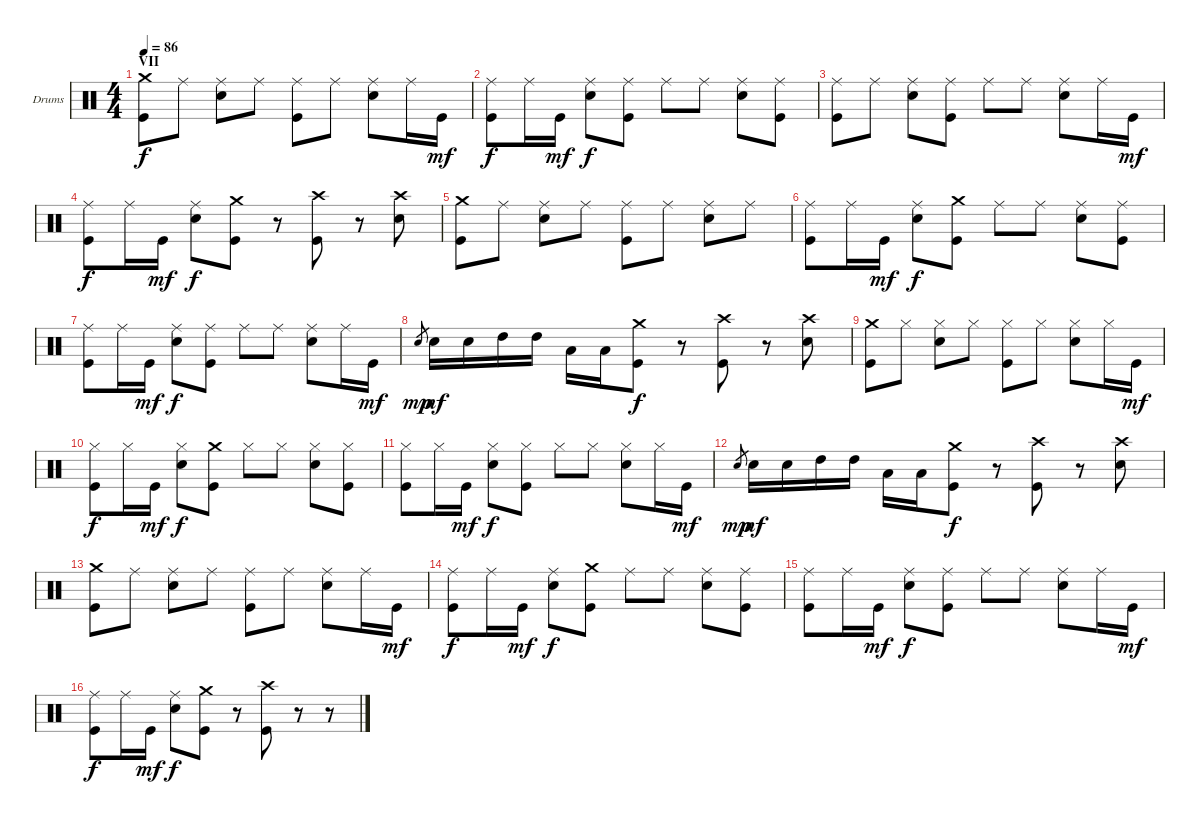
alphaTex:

\bracketExtendMode groupsimilarinstruments
\firstSystemTrackNameOrientation horizontal
\otherSystemsTrackNameOrientation horizontal
\track ("Drumkit" "Drums") {instrument percussion}
\staff {score}
\articulation defaults
\ts (4 4)
\section ("" "VII")
\tempo 86
\clef neutral
\ks c
("Crash medium (hit)" "Kick (hit)").8{dy f} "Ride (middle)".8 ("Ride (middle)" "Snare (hit) 2").8 "Ride (middle)".8 ("Ride (middle)" "Kick (hit)").8 "Ride (middle)".8 ("Ride (middle)" "Snare (hit) 2").8 "Ride (middle)".16 "Kick (hit)".16{dy mf} |
("Ride (middle)" "Kick (hit)").8{dy f} "Ride (middle)".16 "Kick (hit)".16{dy mf} ("Ride (middle)" "Snare (hit) 2").8{dy f} ("Ride (middle)" "Kick (hit)").8 "Ride (middle)".8 "Ride (middle)".8 ("Ride (middle)" "Snare (hit) 2").8 ("Ride (middle)" "Kick (hit)").8 |
("Ride (middle)" "Kick (hit)").8 "Ride (middle)".8 ("Ride (middle)" "Snare (hit) 2").8 ("Ride (middle)" "Kick (hit)").8 "Ride (middle)".8 "Ride (middle)".8 ("Ride (middle)" "Snare (hit) 2").8 "Ride (middle)".16 "Kick (hit)".16{dy mf} |
("Ride (middle)" "Kick (hit)").8{dy f} "Ride (middle)".16 "Kick (hit)".16{dy mf} ("Ride (middle)" "Snare (hit) 2").8{dy f} ("Crash medium (hit)" "Kick (hit)").8 r.8 ("Crash high (hit)" "Kick (hit)").8 r.8 ("Crash high (hit)" "Snare (hit) 2").8 |
("Crash medium (hit)" "Kick (hit)").8 "Ride (middle)".8 ("Ride (middle)" "Snare (hit) 2").8 "Ride (middle)".8 ("Ride (middle)" "Kick (hit)").8 "Ride (middle)".8 ("Ride (middle)" "Snare (hit) 2").8 "Ride (middle)".8 |
("Ride (middle)" "Kick (hit)").8 "Ride (middle)".16 "Kick (hit)".16{dy mf} ("Ride (middle)" "Snare (hit) 2").8{dy f} ("Crash medium (hit)" "Kick (hit)").8 "Ride (middle)".8 "Ride (middle)".8 ("Ride (middle)" "Snare (hit) 2").8 ("Ride (middle)" "Kick (hit)").8 |
("Ride (middle)" "Kick (hit)").8 "Ride (middle)".16 "Kick (hit)".16{dy mf} ("Ride (middle)" "Snare (hit) 2").8{dy f} ("Ride (middle)" "Kick (hit)").8 "Ride (middle)".8 "Ride (middle)".8 ("Ride (middle)" "Snare (hit) 2").8 "Ride (middle)".16 "Kick (hit)".16{dy mf} |
"Snare (hit) 2".8{gr dy mp} "Snare (hit) 2".16{dy mf} "Snare (hit) 2".16 "High Tom (hit)".16 "High Tom (hit)".16 "Low Tom (hit)".16 "Low Tom (hit)".16 ("Crash medium (hit)" "Kick (hit)").8{dy f} r.8 ("Crash high (hit)" "Kick (hit)").8 r.8 ("Crash high (hit)" "Snare (hit) 2").8 |
("Crash medium (hit)" "Kick (hit)").8 "Hi-Hat (closed)".8 ("Hi-Hat (closed)" "Snare (hit) 2").8 "Hi-Hat (closed)".8 ("Hi-Hat (closed)" "Kick (hit)").8 "Hi-Hat (closed)".8 ("Hi-Hat (closed)" "Snare (hit) 2").8 "Hi-Hat (closed)".16 "Kick (hit)".16{dy mf} |
("Hi-Hat (closed)" "Kick (hit)").8{dy f} "Hi-Hat (closed)".16 "Kick (hit)".16{dy mf} ("Hi-Hat (closed)" "Snare (hit) 2").8{dy f} ("Crash medium (hit)" "Kick (hit)").8 "Hi-Hat (closed)".8 "Hi-Hat (closed)".8 ("Hi-Hat (closed)" "Snare (hit) 2").8 ("Hi-Hat (closed)" "Kick (hit)").8 |
("Hi-Hat (closed)" "Kick (hit)").8 "Hi-Hat (closed)".16 "Kick (hit)".16{dy mf} ("Hi-Hat (closed)" "Snare (hit) 2").8{dy f} ("Hi-Hat (closed)" "Kick (hit)").8 "Hi-Hat (closed)".8 "Hi-Hat (closed)".8 ("Hi-Hat (closed)" "Snare (hit) 2").8 "Hi-Hat (closed)".16 "Kick (hit)".16{dy mf} |
"Snare (hit) 2".8{gr dy mp} "Snare (hit) 2".16{dy mf} "Snare (hit) 2".16 "High Tom (hit)".16 "High Tom (hit)".16 "Low Tom (hit)".16 "Low Tom (hit)".16 ("Crash medium (hit)" "Kick (hit)").8{dy f} r.8 ("Crash high (hit)" "Kick (hit)").8 r.8 ("Crash high (hit)" "Snare (hit) 2").8 |
("Crash medium (hit)" "Kick (hit)").8 "Ride (middle)".8 ("Ride (middle)" "Snare (hit) 2").8 "Ride (middle)".8 ("Ride (middle)" "Kick (hit)").8 "Ride (middle)".8 ("Ride (middle)" "Snare (hit) 2").8 "Ride (middle)".16 "Kick (hit)".16{dy mf} |
("Ride (middle)" "Kick (hit)").8{dy f} "Ride (middle)".16 "Kick (hit)".16{dy mf} ("Ride (middle)" "Snare (hit) 2").8{dy f} ("Crash medium (hit)" "Kick (hit)").8 "Ride (middle)".8 "Ride (middle)".8 ("Ride (middle)" "Snare (hit) 2").8 ("Ride (middle)" "Kick (hit)").8 |
("Ride (middle)" "Kick (hit)").8 "Ride (middle)".16 "Kick (hit)".16{dy mf} ("Ride (middle)" "Snare (hit) 2").8{dy f} ("Ride (middle)" "Kick (hit)").8 "Ride (middle)".8 "Ride (middle)".8 ("Ride (middle)" "Snare (hit) 2").8 "Ride (middle)".16 "Kick (hit)".16{dy mf} |
("Ride (middle)" "Kick (hit)").8{dy f} "Ride (middle)".16 "Kick (hit)".16{dy mf} ("Ride (middle)" "Snare (hit) 2").8{dy f} ("Crash medium (hit)" "Kick (hit)").8 r.8 ("Crash high (hit)" "Kick (hit)").8 r.8 r.8
